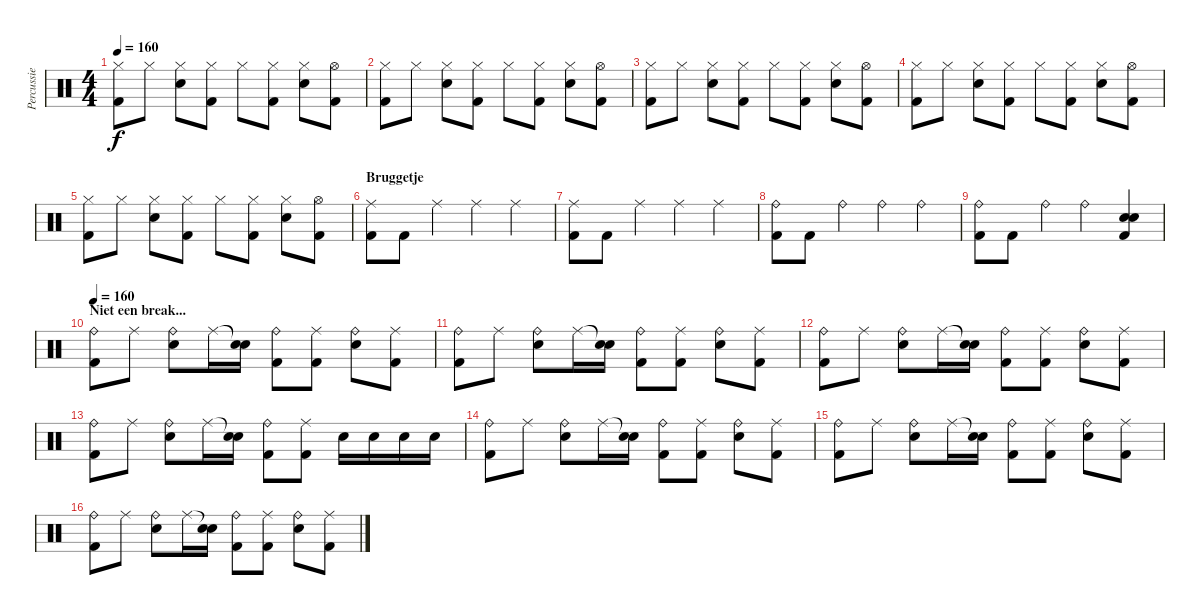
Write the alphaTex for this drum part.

\track ("Percussie" "Percussie") {instrument percussion}
\staff {score}
\articulation defaults
\ts (4 4)
\tempo 160
\clef neutral
\ks c
("Hi-Hat (closed)" "Kick (hit) 2").8{dy f} "Hi-Hat (closed)".8 ("Hi-Hat (closed)" "Snare (hit) 2").8 ("Hi-Hat (closed)" "Kick (hit) 2").8 "Hi-Hat (closed)".8 ("Hi-Hat (closed)" "Kick (hit) 2").8 ("Hi-Hat (closed)" "Snare (hit) 2").8 ("Hi-Hat (open)" "Kick (hit) 2").8 |
("Hi-Hat (closed)" "Kick (hit) 2").8 "Hi-Hat (closed)".8 ("Hi-Hat (closed)" "Snare (hit) 2").8 ("Hi-Hat (closed)" "Kick (hit) 2").8 "Hi-Hat (closed)".8 ("Hi-Hat (closed)" "Kick (hit) 2").8 ("Hi-Hat (closed)" "Snare (hit) 2").8 ("Hi-Hat (open)" "Kick (hit) 2").8 |
("Hi-Hat (closed)" "Kick (hit) 2").8 "Hi-Hat (closed)".8 ("Hi-Hat (closed)" "Snare (hit) 2").8 ("Hi-Hat (closed)" "Kick (hit) 2").8 "Hi-Hat (closed)".8 ("Hi-Hat (closed)" "Kick (hit) 2").8 ("Hi-Hat (closed)" "Snare (hit) 2").8 ("Hi-Hat (open)" "Kick (hit) 2").8 |
("Hi-Hat (closed)" "Kick (hit) 2").8 "Hi-Hat (closed)".8 ("Hi-Hat (closed)" "Snare (hit) 2").8 ("Hi-Hat (closed)" "Kick (hit) 2").8 "Hi-Hat (closed)".8 ("Hi-Hat (closed)" "Kick (hit) 2").8 ("Hi-Hat (closed)" "Snare (hit) 2").8 ("Hi-Hat (open)" "Kick (hit) 2").8 |
("Hi-Hat (closed)" "Kick (hit) 2").8 "Hi-Hat (closed)".8 ("Hi-Hat (closed)" "Snare (hit) 2").8 ("Hi-Hat (closed)" "Kick (hit) 2").8 "Hi-Hat (closed)".8 ("Hi-Hat (closed)" "Kick (hit) 2").8 ("Hi-Hat (closed)" "Snare (hit) 2").8 ("Hi-Hat (open)" "Kick (hit) 2").8 |
\section ("" "Bruggetje")
("Ride (middle)" "Kick (hit) 2").8 "Kick (hit) 2".8 "Ride (middle)".4 "Ride (middle)".4 "Ride (middle)".4 |
("Ride (middle)" "Kick (hit) 2").8 "Kick (hit) 2".8 "Ride (middle)".4 "Ride (middle)".4 "Ride (middle)".4 |
("Ride (bell)" "Kick (hit) 2").8 "Kick (hit) 2".8 "Ride (bell)".4 "Ride (bell)".4 "Ride (bell)".4 |
("Ride (bell)" "Kick (hit) 2").8 "Kick (hit) 2".8 "Ride (bell)".4 "Ride (bell)".4 ("Snare (hit) 2" "Snare (hit) 2" "Kick (hit) 2").4 |
\section ("" "Niet een break...")
\tempo 160
("Ride (bell)" "Kick (hit) 2").8 "Ride (middle)".8 ("Ride (bell)" "Snare (hit) 2").8 "Ride (middle)".16 ("Snare (hit)"{t} "Snare (hit) 2").16 ("Ride (bell)" "Kick (hit) 2").8 ("Ride (middle)" "Kick (hit) 2").8 ("Ride (bell)" "Snare (hit) 2").8 ("Ride (middle)" "Kick (hit) 2").8 |
("Ride (bell)" "Kick (hit) 2").8 "Ride (middle)".8 ("Ride (bell)" "Snare (hit) 2").8 "Ride (middle)".16 ("Snare (hit)"{t} "Snare (hit) 2").16 ("Ride (bell)" "Kick (hit) 2").8 ("Ride (middle)" "Kick (hit) 2").8 ("Ride (bell)" "Snare (hit) 2").8 ("Ride (middle)" "Kick (hit) 2").8 |
("Ride (bell)" "Kick (hit) 2").8 "Ride (middle)".8 ("Ride (bell)" "Snare (hit) 2").8 "Ride (middle)".16 ("Snare (hit)"{t} "Snare (hit) 2").16 ("Ride (bell)" "Kick (hit) 2").8 ("Ride (middle)" "Kick (hit) 2").8 ("Ride (bell)" "Snare (hit) 2").8 ("Ride (middle)" "Kick (hit) 2").8 |
("Ride (bell)" "Kick (hit) 2").8 "Ride (middle)".8 ("Ride (bell)" "Snare (hit) 2").8 "Ride (middle)".16 ("Snare (hit)"{t} "Snare (hit) 2").16 ("Ride (bell)" "Kick (hit) 2").8 ("Ride (middle)" "Kick (hit) 2").8 "Snare (hit) 2".16 "Snare (hit) 2".16 "Snare (hit) 2".16 "Snare (hit) 2".16 |
("Ride (bell)" "Kick (hit) 2").8 "Ride (middle)".8 ("Ride (bell)" "Snare (hit) 2").8 "Ride (middle)".16 ("Snare (hit)"{t} "Snare (hit) 2").16 ("Ride (bell)" "Kick (hit) 2").8 ("Ride (middle)" "Kick (hit) 2").8 ("Ride (bell)" "Snare (hit) 2").8 ("Ride (middle)" "Kick (hit) 2").8 |
("Ride (bell)" "Kick (hit) 2").8 "Ride (middle)".8 ("Ride (bell)" "Snare (hit) 2").8 "Ride (middle)".16 ("Snare (hit)"{t} "Snare (hit) 2").16 ("Ride (bell)" "Kick (hit) 2").8 ("Ride (middle)" "Kick (hit) 2").8 ("Ride (bell)" "Snare (hit) 2").8 ("Ride (middle)" "Kick (hit) 2").8 |
("Ride (bell)" "Kick (hit) 2").8 "Ride (middle)".8 ("Ride (bell)" "Snare (hit) 2").8 "Ride (middle)".16 ("Snare (hit)"{t} "Snare (hit) 2").16 ("Ride (bell)" "Kick (hit) 2").8 ("Ride (middle)" "Kick (hit) 2").8 ("Ride (bell)" "Snare (hit) 2").8 ("Ride (middle)" "Kick (hit) 2").8
